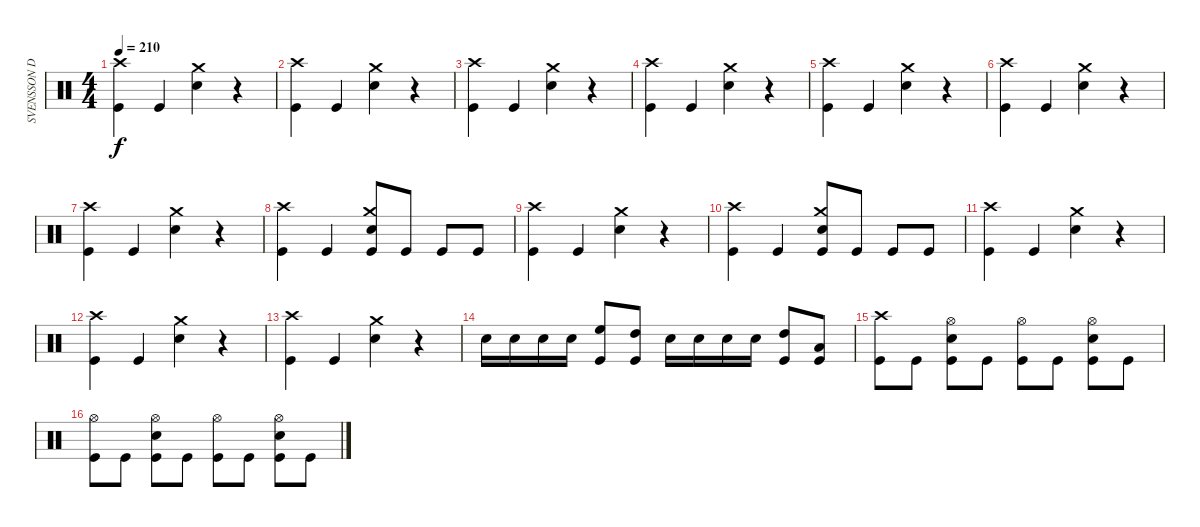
\track ("SVENSSON DRUMS" "SVENSSON D") {instrument percussion}
\staff {score}
\articulation defaults
\ts (4 4)
\tempo 210
\clef neutral
\ks c
("Crash high (hit)" "Kick (hit)").4{dy f} "Kick (hit)".4 ("Crash medium (hit)" "Electric Snare (hit)").4 r.4 |
("Crash high (hit)" "Kick (hit)").4 "Kick (hit)".4 ("Crash medium (hit)" "Electric Snare (hit)").4 r.4 |
("Crash high (hit)" "Kick (hit)").4 "Kick (hit)".4 ("Crash medium (hit)" "Electric Snare (hit)").4 r.4 |
("Crash high (hit)" "Kick (hit)").4 "Kick (hit)".4 ("Crash medium (hit)" "Electric Snare (hit)").4 r.4 |
("Crash high (hit)" "Kick (hit)").4 "Kick (hit)".4 ("Crash medium (hit)" "Electric Snare (hit)").4 r.4 |
("Crash high (hit)" "Kick (hit)").4 "Kick (hit)".4 ("Crash medium (hit)" "Electric Snare (hit)").4 r.4 |
("Crash high (hit)" "Kick (hit)").4 "Kick (hit)".4 ("Crash medium (hit)" "Electric Snare (hit)").4 r.4 |
("Crash high (hit)" "Kick (hit)").4 "Kick (hit)".4 ("Crash medium (hit)" "Electric Snare (hit)" "Kick (hit)").8 "Kick (hit)".8 "Kick (hit)".8 "Kick (hit)".8 |
("Crash high (hit)" "Kick (hit)").4 "Kick (hit)".4 ("Crash medium (hit)" "Electric Snare (hit)").4 r.4 |
("Crash high (hit)" "Kick (hit)").4 "Kick (hit)".4 ("Crash medium (hit)" "Electric Snare (hit)" "Kick (hit)").8 "Kick (hit)".8 "Kick (hit)".8 "Kick (hit)".8 |
("Crash high (hit)" "Kick (hit)").4 "Kick (hit)".4 ("Crash medium (hit)" "Electric Snare (hit)").4 r.4 |
("Crash high (hit)" "Kick (hit)").4 "Kick (hit)".4 ("Crash medium (hit)" "Electric Snare (hit)").4 r.4 |
("Crash high (hit)" "Kick (hit)").4 "Kick (hit)".4 ("Crash medium (hit)" "Electric Snare (hit)").4 r.4 |
"Electric Snare (hit)".16 "Electric Snare (hit)".16 "Electric Snare (hit)".16 "Electric Snare (hit)".16 ("High Floor Tom (hit)" "Kick (hit)").8 ("High Tom (hit)" "Kick (hit)").8 "Electric Snare (hit)".16 "Electric Snare (hit)".16 "Electric Snare (hit)".16 "Electric Snare (hit)".16 ("High Tom (hit)" "Kick (hit)").8 ("Low Tom (hit)" "Kick (hit)").8 |
("Crash high (hit)" "Kick (hit)").8 "Kick (hit)".8 ("Hi-Hat (open)" "Electric Snare (hit)" "Kick (hit)").8 "Kick (hit)".8 ("Hi-Hat (open)" "Kick (hit)").8 "Kick (hit)".8 ("Hi-Hat (open)" "Electric Snare (hit)" "Kick (hit)").8 "Kick (hit)".8 |
("Hi-Hat (open)" "Kick (hit)").8 "Kick (hit)".8 ("Hi-Hat (open)" "Electric Snare (hit)" "Kick (hit)").8 "Kick (hit)".8 ("Hi-Hat (open)" "Kick (hit)").8 "Kick (hit)".8 ("Hi-Hat (open)" "Electric Snare (hit)" "Kick (hit)").8 "Kick (hit)".8
